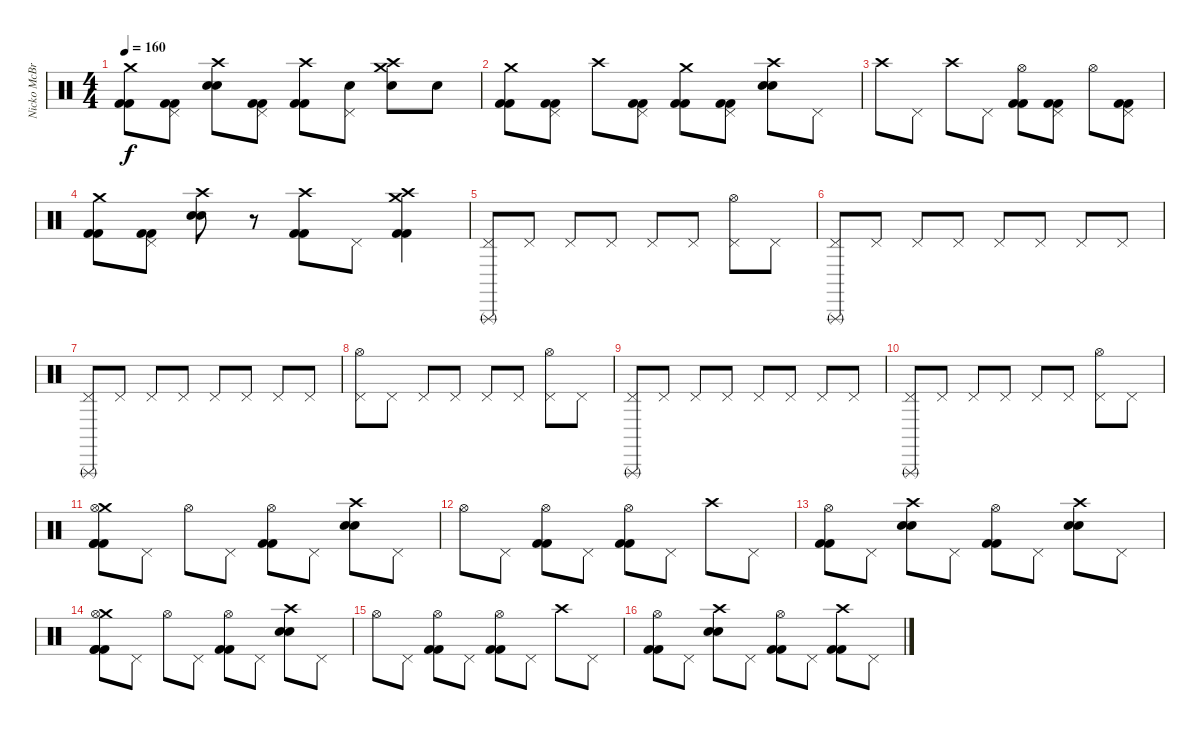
\track ("Nicko McBrain" "Nicko McBr") {instrument percussion}
\staff {score}
\articulation defaults
\ts (4 4)
\tempo 160
\clef neutral
\ks c
("Crash medium (hit)" "Kick (hit) 2" "Kick (hit) 2").8{dy f} ("Pedal Hi-Hat (hit)" "Kick (hit) 2" "Kick (hit) 2").8 ("Crash high (hit)" "Snare (hit) 2" "Snare (hit) 2").8 ("Pedal Hi-Hat (hit)" "Kick (hit) 2" "Kick (hit) 2").8 ("Crash high (hit)" "Kick (hit) 2" "Kick (hit) 2").8 ("Pedal Hi-Hat (hit)" "Snare (hit) 2").8 ("Crash high (hit)" "Crash medium (hit)" "Snare (hit) 2").8 "Snare (hit) 2".8 |
("Crash medium (hit)" "Kick (hit) 2" "Kick (hit) 2").8 ("Pedal Hi-Hat (hit)" "Kick (hit) 2" "Kick (hit) 2").8 "Crash high (hit)".8 ("Pedal Hi-Hat (hit)" "Kick (hit) 2" "Kick (hit) 2").8 ("Crash medium (hit)" "Kick (hit) 2" "Kick (hit) 2").8 ("Pedal Hi-Hat (hit)" "Kick (hit) 2" "Kick (hit) 2").8 ("Crash high (hit)" "Snare (hit) 2" "Snare (hit) 2").8 "Pedal Hi-Hat (hit)".8 |
"Crash high (hit)".8 "Pedal Hi-Hat (hit)".8 "Crash high (hit)".8 "Pedal Hi-Hat (hit)".8 ("Hi-Hat (open)" "Kick (hit) 2" "Kick (hit) 2").8 ("Pedal Hi-Hat (hit)" "Kick (hit) 2" "Kick (hit) 2").8 "Hi-Hat (open)".8 ("Pedal Hi-Hat (hit)" "Kick (hit) 2" "Kick (hit) 2").8 |
("Crash medium (hit)" "Kick (hit) 2" "Kick (hit) 2").8 ("Pedal Hi-Hat (hit)" "Kick (hit) 2" "Kick (hit) 2").8 ("Crash high (hit)" "Snare (hit) 2" "Snare (hit) 2").8 r.8 ("Crash high (hit)" "Kick (hit) 2" "Kick (hit) 2").8 "Pedal Hi-Hat (hit)".8 ("Crash high (hit)" "Crash medium (hit)" "Kick (hit) 2" "Kick (hit) 2").4 |
("Pedal Hi-Hat (hit)" "Triangle (rnute)").8 "Pedal Hi-Hat (hit)".8 "Pedal Hi-Hat (hit)".8 "Pedal Hi-Hat (hit)".8 "Pedal Hi-Hat (hit)".8 "Pedal Hi-Hat (hit)".8 ("Pedal Hi-Hat (hit)" "Hi-Hat (open)").8 "Pedal Hi-Hat (hit)".8 |
("Pedal Hi-Hat (hit)" "Triangle (rnute)").8 "Pedal Hi-Hat (hit)".8 "Pedal Hi-Hat (hit)".8 "Pedal Hi-Hat (hit)".8 "Pedal Hi-Hat (hit)".8 "Pedal Hi-Hat (hit)".8 "Pedal Hi-Hat (hit)".8 "Pedal Hi-Hat (hit)".8 |
("Pedal Hi-Hat (hit)" "Triangle (rnute)").8 "Pedal Hi-Hat (hit)".8 "Pedal Hi-Hat (hit)".8 "Pedal Hi-Hat (hit)".8 "Pedal Hi-Hat (hit)".8 "Pedal Hi-Hat (hit)".8 "Pedal Hi-Hat (hit)".8 "Pedal Hi-Hat (hit)".8 |
("Pedal Hi-Hat (hit)" "Hi-Hat (open)").8 "Pedal Hi-Hat (hit)".8 "Pedal Hi-Hat (hit)".8 "Pedal Hi-Hat (hit)".8 "Pedal Hi-Hat (hit)".8 "Pedal Hi-Hat (hit)".8 ("Pedal Hi-Hat (hit)" "Hi-Hat (open)").8 "Pedal Hi-Hat (hit)".8 |
("Pedal Hi-Hat (hit)" "Triangle (rnute)").8 "Pedal Hi-Hat (hit)".8 "Pedal Hi-Hat (hit)".8 "Pedal Hi-Hat (hit)".8 "Pedal Hi-Hat (hit)".8 "Pedal Hi-Hat (hit)".8 "Pedal Hi-Hat (hit)".8 "Pedal Hi-Hat (hit)".8 |
("Pedal Hi-Hat (hit)" "Triangle (rnute)").8 "Pedal Hi-Hat (hit)".8 "Pedal Hi-Hat (hit)".8 "Pedal Hi-Hat (hit)".8 "Pedal Hi-Hat (hit)".8 "Pedal Hi-Hat (hit)".8 ("Pedal Hi-Hat (hit)" "Hi-Hat (open)").8 "Pedal Hi-Hat (hit)".8 |
("Crash medium (hit)" "Hi-Hat (open)" "Kick (hit) 2" "Kick (hit) 2" "Kick (hit) 2").8 "Pedal Hi-Hat (hit)".8 "Hi-Hat (open)".8 "Pedal Hi-Hat (hit)".8 ("Hi-Hat (open)" "Kick (hit) 2" "Kick (hit) 2").8 "Pedal Hi-Hat (hit)".8 ("Crash high (hit)" "Snare (hit) 2" "Snare (hit) 2").8 "Pedal Hi-Hat (hit)".8 |
"Hi-Hat (open)".8 "Pedal Hi-Hat (hit)".8 ("Hi-Hat (open)" "Kick (hit) 2" "Kick (hit) 2").8 "Pedal Hi-Hat (hit)".8 ("Hi-Hat (open)" "Kick (hit) 2" "Kick (hit) 2").8 "Pedal Hi-Hat (hit)".8 "Crash high (hit)".8 "Pedal Hi-Hat (hit)".8 |
("Hi-Hat (open)" "Kick (hit) 2" "Kick (hit) 2").8 "Pedal Hi-Hat (hit)".8 ("Crash high (hit)" "Snare (hit) 2" "Snare (hit) 2").8 "Pedal Hi-Hat (hit)".8 ("Hi-Hat (open)" "Kick (hit) 2" "Kick (hit) 2").8 "Pedal Hi-Hat (hit)".8 ("Crash high (hit)" "Snare (hit) 2" "Snare (hit) 2").8 "Pedal Hi-Hat (hit)".8 |
("Crash medium (hit)" "Hi-Hat (open)" "Kick (hit) 2" "Kick (hit) 2" "Kick (hit) 2").8 "Pedal Hi-Hat (hit)".8 "Hi-Hat (open)".8 "Pedal Hi-Hat (hit)".8 ("Hi-Hat (open)" "Kick (hit) 2" "Kick (hit) 2").8 "Pedal Hi-Hat (hit)".8 ("Crash high (hit)" "Snare (hit) 2" "Snare (hit) 2").8 "Pedal Hi-Hat (hit)".8 |
"Hi-Hat (open)".8 "Pedal Hi-Hat (hit)".8 ("Hi-Hat (open)" "Kick (hit) 2" "Kick (hit) 2").8 "Pedal Hi-Hat (hit)".8 ("Hi-Hat (open)" "Kick (hit) 2" "Kick (hit) 2").8 "Pedal Hi-Hat (hit)".8 "Crash high (hit)".8 "Pedal Hi-Hat (hit)".8 |
("Hi-Hat (open)" "Kick (hit) 2" "Kick (hit) 2").8 "Pedal Hi-Hat (hit)".8 ("Crash high (hit)" "Snare (hit) 2" "Snare (hit) 2").8 "Pedal Hi-Hat (hit)".8 ("Hi-Hat (open)" "Kick (hit) 2" "Kick (hit) 2").8 "Pedal Hi-Hat (hit)".8 ("Crash high (hit)" "Kick (hit) 2" "Kick (hit) 2").8 "Pedal Hi-Hat (hit)".8
